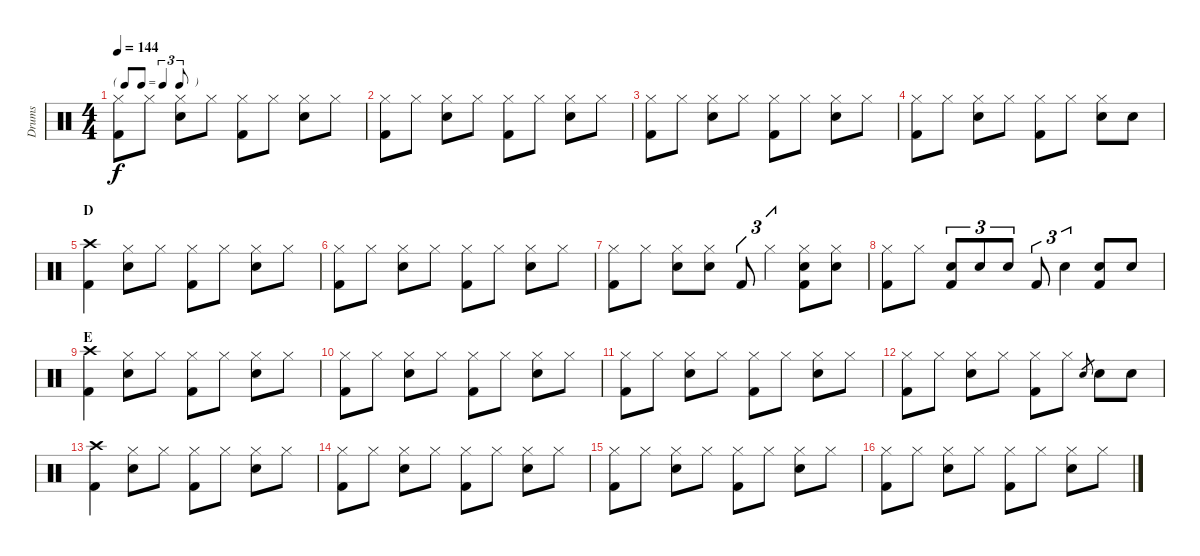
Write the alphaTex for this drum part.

\track ("Drums" "Drums") {instrument percussion}
\staff {score}
\articulation defaults
\ts (4 4)
\tf triplet8th
\tempo 144
\clef neutral
\ks c
("Hi-Hat (closed)" "Kick (hit) 2").8{dy f} "Hi-Hat (closed)".8 ("Hi-Hat (closed)" "Electric Snare (hit)").8 "Hi-Hat (closed)".8 ("Hi-Hat (closed)" "Kick (hit) 2").8 "Hi-Hat (closed)".8 ("Hi-Hat (closed)" "Electric Snare (hit)").8 "Hi-Hat (closed)".8 |
("Hi-Hat (closed)" "Kick (hit) 2").8 "Hi-Hat (closed)".8 ("Hi-Hat (closed)" "Electric Snare (hit)").8 "Hi-Hat (closed)".8 ("Hi-Hat (closed)" "Kick (hit) 2").8 "Hi-Hat (closed)".8 ("Hi-Hat (closed)" "Electric Snare (hit)").8 "Hi-Hat (closed)".8 |
("Hi-Hat (closed)" "Kick (hit) 2").8 "Hi-Hat (closed)".8 ("Hi-Hat (closed)" "Electric Snare (hit)").8 "Hi-Hat (closed)".8 ("Hi-Hat (closed)" "Kick (hit) 2").8 "Hi-Hat (closed)".8 ("Hi-Hat (closed)" "Electric Snare (hit)").8 "Hi-Hat (closed)".8 |
("Hi-Hat (closed)" "Kick (hit) 2").8 "Hi-Hat (closed)".8 ("Hi-Hat (closed)" "Electric Snare (hit)").8 "Hi-Hat (closed)".8 ("Hi-Hat (closed)" "Kick (hit) 2").8 "Hi-Hat (closed)".8 ("Hi-Hat (closed)" "Electric Snare (hit)").8 "Electric Snare (hit)".8 |
\section ("" "D")
("Crash high (hit)" "Kick (hit) 2").4 ("Hi-Hat (closed)" "Electric Snare (hit)").8 "Hi-Hat (closed)".8 ("Hi-Hat (closed)" "Kick (hit) 2").8 "Hi-Hat (closed)".8 ("Hi-Hat (closed)" "Electric Snare (hit)").8 "Hi-Hat (closed)".8 |
("Hi-Hat (closed)" "Kick (hit) 2").8 "Hi-Hat (closed)".8 ("Hi-Hat (closed)" "Electric Snare (hit)").8 "Hi-Hat (closed)".8 ("Hi-Hat (closed)" "Kick (hit) 2").8 "Hi-Hat (closed)".8 ("Hi-Hat (closed)" "Electric Snare (hit)").8 "Hi-Hat (closed)".8 |
("Hi-Hat (closed)" "Kick (hit) 2").8 "Hi-Hat (closed)".8 ("Hi-Hat (closed)" "Electric Snare (hit)").8 ("Hi-Hat (closed)" "Electric Snare (hit)").8 "Kick (hit) 2".8{tu (3 2)} "Hi-Hat (closed)".4{tu (3 2)} ("Hi-Hat (closed)" "Electric Snare (hit)" "Kick (hit) 2").8 ("Hi-Hat (closed)" "Electric Snare (hit)").8 |
("Hi-Hat (closed)" "Kick (hit) 2").8 "Hi-Hat (closed)".8 ("Electric Snare (hit)" "Kick (hit) 2").8{tu (3 2)} "Electric Snare (hit)".8{tu (3 2)} "Electric Snare (hit)".8{tu (3 2)} "Kick (hit) 2".8{tu (3 2)} "Electric Snare (hit)".4{tu (3 2)} ("Electric Snare (hit)" "Kick (hit) 2").8 "Electric Snare (hit)".8 |
\section ("" "E")
("Crash high (hit)" "Kick (hit) 2").4 ("Hi-Hat (closed)" "Electric Snare (hit)").8 "Hi-Hat (closed)".8 ("Hi-Hat (closed)" "Kick (hit) 2").8 "Hi-Hat (closed)".8 ("Hi-Hat (closed)" "Electric Snare (hit)").8 "Hi-Hat (closed)".8 |
("Hi-Hat (closed)" "Kick (hit) 2").8 "Hi-Hat (closed)".8 ("Hi-Hat (closed)" "Electric Snare (hit)").8 "Hi-Hat (closed)".8 ("Hi-Hat (closed)" "Kick (hit) 2").8 "Hi-Hat (closed)".8 ("Hi-Hat (closed)" "Electric Snare (hit)").8 "Hi-Hat (closed)".8 |
("Hi-Hat (closed)" "Kick (hit) 2").8 "Hi-Hat (closed)".8 ("Hi-Hat (closed)" "Electric Snare (hit)").8 "Hi-Hat (closed)".8 ("Hi-Hat (closed)" "Kick (hit) 2").8 "Hi-Hat (closed)".8 ("Hi-Hat (closed)" "Electric Snare (hit)").8 "Hi-Hat (closed)".8 |
("Hi-Hat (closed)" "Kick (hit) 2").8 "Hi-Hat (closed)".8 ("Hi-Hat (closed)" "Electric Snare (hit)").8 "Hi-Hat (closed)".8 ("Hi-Hat (closed)" "Kick (hit) 2").8 "Hi-Hat (closed)".8 "Electric Snare (hit)".8{gr} "Electric Snare (hit)".8 "Electric Snare (hit)".8 |
("Crash high (hit)" "Kick (hit) 2").4 ("Hi-Hat (closed)" "Electric Snare (hit)").8 "Hi-Hat (closed)".8 ("Hi-Hat (closed)" "Kick (hit) 2").8 "Hi-Hat (closed)".8 ("Hi-Hat (closed)" "Electric Snare (hit)").8 "Hi-Hat (closed)".8 |
("Hi-Hat (closed)" "Kick (hit) 2").8 "Hi-Hat (closed)".8 ("Hi-Hat (closed)" "Electric Snare (hit)").8 "Hi-Hat (closed)".8 ("Hi-Hat (closed)" "Kick (hit) 2").8 "Hi-Hat (closed)".8 ("Hi-Hat (closed)" "Electric Snare (hit)").8 "Hi-Hat (closed)".8 |
("Hi-Hat (closed)" "Kick (hit) 2").8 "Hi-Hat (closed)".8 ("Hi-Hat (closed)" "Electric Snare (hit)").8 "Hi-Hat (closed)".8 ("Hi-Hat (closed)" "Kick (hit) 2").8 "Hi-Hat (closed)".8 ("Hi-Hat (closed)" "Electric Snare (hit)").8 "Hi-Hat (closed)".8 |
("Hi-Hat (closed)" "Kick (hit) 2").8 "Hi-Hat (closed)".8 ("Hi-Hat (closed)" "Electric Snare (hit)").8 "Hi-Hat (closed)".8 ("Hi-Hat (closed)" "Kick (hit) 2").8 "Hi-Hat (closed)".8 ("Hi-Hat (closed)" "Electric Snare (hit)").8 "Hi-Hat (closed)".8
